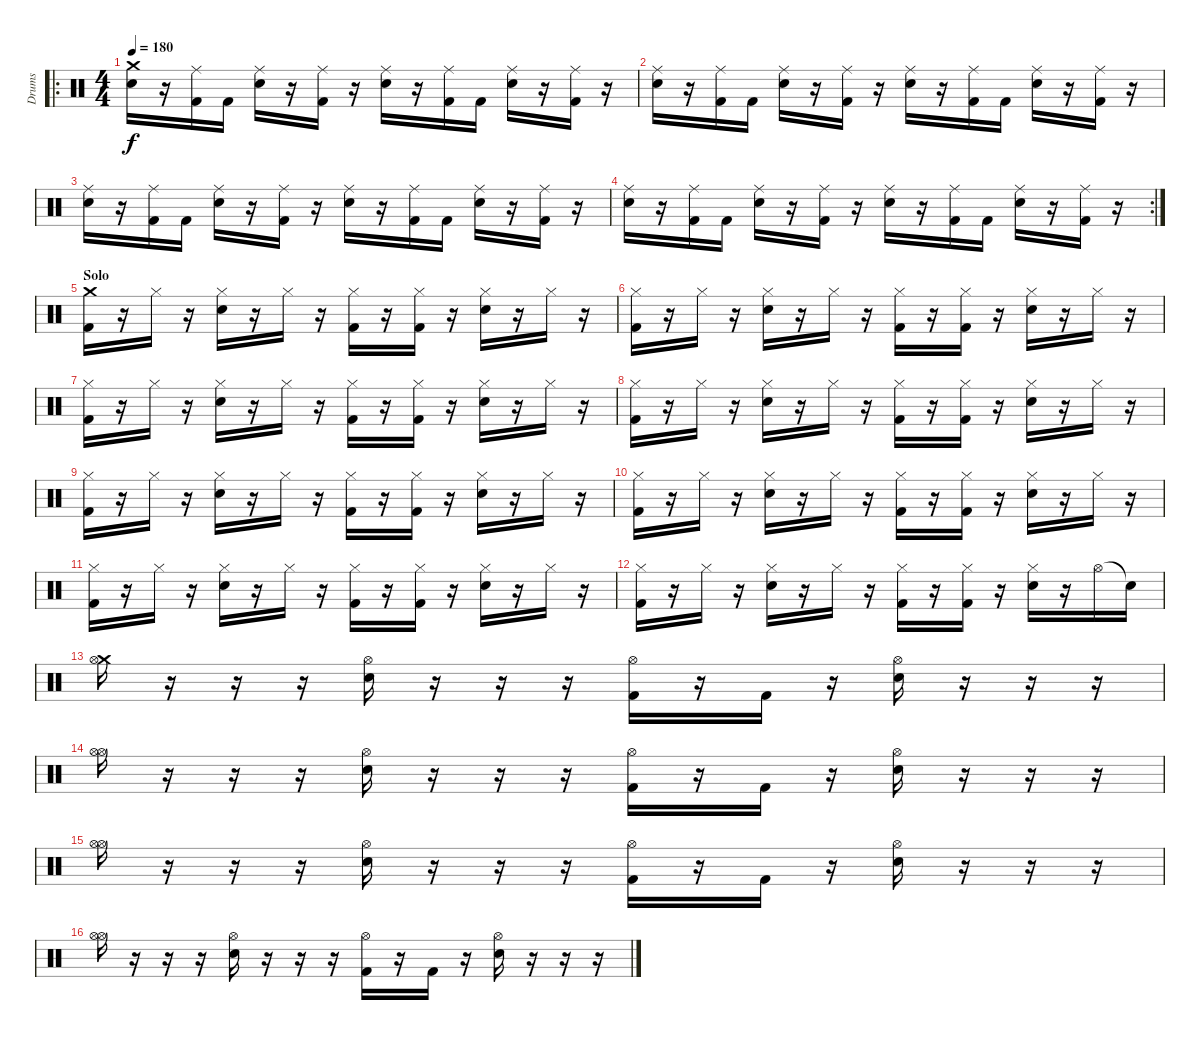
\track ("Drums" "Drums") {instrument percussion}
\staff {score}
\articulation defaults
\ro
\ts (4 4)
\tempo 180
\clef neutral
\ks c
("Crash medium (hit)" "Electric Snare (hit)").16{dy f} r.16 ("Ride (middle)" "Kick (hit) 2").16 "Kick (hit) 2".16 ("Ride (middle)" "Electric Snare (hit)").16 r.16 ("Ride (middle)" "Kick (hit) 2").16 r.16 ("Ride (middle)" "Electric Snare (hit)").16 r.16 ("Ride (middle)" "Kick (hit) 2").16 "Kick (hit) 2".16 ("Ride (middle)" "Electric Snare (hit)").16 r.16 ("Ride (middle)" "Kick (hit) 2").16 r.16 |
("Ride (middle)" "Electric Snare (hit)").16 r.16 ("Ride (middle)" "Kick (hit) 2").16 "Kick (hit) 2".16 ("Ride (middle)" "Electric Snare (hit)").16 r.16 ("Ride (middle)" "Kick (hit) 2").16 r.16 ("Ride (middle)" "Electric Snare (hit)").16 r.16 ("Ride (middle)" "Kick (hit) 2").16 "Kick (hit) 2".16 ("Ride (middle)" "Electric Snare (hit)").16 r.16 ("Ride (middle)" "Kick (hit) 2").16 r.16 |
("Ride (middle)" "Electric Snare (hit)").16 r.16 ("Ride (middle)" "Kick (hit) 2").16 "Kick (hit) 2".16 ("Ride (middle)" "Electric Snare (hit)").16 r.16 ("Ride (middle)" "Kick (hit) 2").16 r.16 ("Ride (middle)" "Electric Snare (hit)").16 r.16 ("Ride (middle)" "Kick (hit) 2").16 "Kick (hit) 2".16 ("Ride (middle)" "Electric Snare (hit)").16 r.16 ("Ride (middle)" "Kick (hit) 2").16 r.16 |
\rc 2
("Ride (middle)" "Electric Snare (hit)").16 r.16 ("Ride (middle)" "Kick (hit) 2").16 "Kick (hit) 2".16 ("Ride (middle)" "Electric Snare (hit)").16 r.16 ("Ride (middle)" "Kick (hit) 2").16 r.16 ("Ride (middle)" "Electric Snare (hit)").16 r.16 ("Ride (middle)" "Kick (hit) 2").16 "Kick (hit) 2".16 ("Ride (middle)" "Electric Snare (hit)").16 r.16 ("Ride (middle)" "Kick (hit) 2").16 r.16 |
\section ("" "Solo")
("Crash medium (hit)" "Kick (hit) 2").16 r.16 "Hi-Hat (closed)".16 r.16 ("Hi-Hat (closed)" "Electric Snare (hit)").16 r.16 "Hi-Hat (closed)".16 r.16 ("Hi-Hat (closed)" "Kick (hit) 2").16 r.16 ("Hi-Hat (closed)" "Kick (hit) 2").16 r.16 ("Hi-Hat (closed)" "Electric Snare (hit)").16 r.16 "Hi-Hat (closed)".16 r.16 |
("Hi-Hat (closed)" "Kick (hit) 2").16 r.16 "Hi-Hat (closed)".16 r.16 ("Hi-Hat (closed)" "Electric Snare (hit)").16 r.16 "Hi-Hat (closed)".16 r.16 ("Hi-Hat (closed)" "Kick (hit) 2").16 r.16 ("Hi-Hat (closed)" "Kick (hit) 2").16 r.16 ("Hi-Hat (closed)" "Electric Snare (hit)").16 r.16 "Hi-Hat (closed)".16 r.16 |
("Hi-Hat (closed)" "Kick (hit) 2").16 r.16 "Hi-Hat (closed)".16 r.16 ("Hi-Hat (closed)" "Electric Snare (hit)").16 r.16 "Hi-Hat (closed)".16 r.16 ("Hi-Hat (closed)" "Kick (hit) 2").16 r.16 ("Hi-Hat (closed)" "Kick (hit) 2").16 r.16 ("Hi-Hat (closed)" "Electric Snare (hit)").16 r.16 "Hi-Hat (closed)".16 r.16 |
("Hi-Hat (closed)" "Kick (hit) 2").16 r.16 "Hi-Hat (closed)".16 r.16 ("Hi-Hat (closed)" "Electric Snare (hit)").16 r.16 "Hi-Hat (closed)".16 r.16 ("Hi-Hat (closed)" "Kick (hit) 2").16 r.16 ("Hi-Hat (closed)" "Kick (hit) 2").16 r.16 ("Hi-Hat (closed)" "Electric Snare (hit)").16 r.16 "Hi-Hat (closed)".16 r.16 |
("Hi-Hat (closed)" "Kick (hit) 2").16 r.16 "Hi-Hat (closed)".16 r.16 ("Hi-Hat (closed)" "Electric Snare (hit)").16 r.16 "Hi-Hat (closed)".16 r.16 ("Hi-Hat (closed)" "Kick (hit) 2").16 r.16 ("Hi-Hat (closed)" "Kick (hit) 2").16 r.16 ("Hi-Hat (closed)" "Electric Snare (hit)").16 r.16 "Hi-Hat (closed)".16 r.16 |
("Hi-Hat (closed)" "Kick (hit) 2").16 r.16 "Hi-Hat (closed)".16 r.16 ("Hi-Hat (closed)" "Electric Snare (hit)").16 r.16 "Hi-Hat (closed)".16 r.16 ("Hi-Hat (closed)" "Kick (hit) 2").16 r.16 ("Hi-Hat (closed)" "Kick (hit) 2").16 r.16 ("Hi-Hat (closed)" "Electric Snare (hit)").16 r.16 "Hi-Hat (closed)".16 r.16 |
("Hi-Hat (closed)" "Kick (hit) 2").16 r.16 "Hi-Hat (closed)".16 r.16 ("Hi-Hat (closed)" "Electric Snare (hit)").16 r.16 "Hi-Hat (closed)".16 r.16 ("Hi-Hat (closed)" "Kick (hit) 2").16 r.16 ("Hi-Hat (closed)" "Kick (hit) 2").16 r.16 ("Hi-Hat (closed)" "Electric Snare (hit)").16 r.16 "Hi-Hat (closed)".16 r.16 |
("Hi-Hat (closed)" "Kick (hit) 2").16 r.16 "Hi-Hat (closed)".16 r.16 ("Hi-Hat (closed)" "Electric Snare (hit)").16 r.16 "Hi-Hat (closed)".16 r.16 ("Hi-Hat (closed)" "Kick (hit) 2").16 r.16 ("Hi-Hat (closed)" "Kick (hit) 2").16 r.16 ("Hi-Hat (closed)" "Electric Snare (hit)").16 r.16 "Hi-Hat (open)".16 "Snare (hit)"{t}.16 |
("Crash medium (hit)" "Hi-Hat (open)").16 r.16 r.16 r.16 ("Hi-Hat (open)" "Electric Snare (hit)").16 r.16 r.16 r.16 ("Hi-Hat (open)" "Kick (hit) 2").16 r.16 "Kick (hit) 2".16 r.16 ("Hi-Hat (open)" "Electric Snare (hit)").16 r.16 r.16 r.16 |
("Hi-Hat (open)" "Hi-Hat (open)").16 r.16 r.16 r.16 ("Hi-Hat (open)" "Electric Snare (hit)").16 r.16 r.16 r.16 ("Hi-Hat (open)" "Kick (hit) 2").16 r.16 "Kick (hit) 2".16 r.16 ("Hi-Hat (open)" "Electric Snare (hit)").16 r.16 r.16 r.16 |
("Hi-Hat (open)" "Hi-Hat (open)").16 r.16 r.16 r.16 ("Hi-Hat (open)" "Electric Snare (hit)").16 r.16 r.16 r.16 ("Hi-Hat (open)" "Kick (hit) 2").16 r.16 "Kick (hit) 2".16 r.16 ("Hi-Hat (open)" "Electric Snare (hit)").16 r.16 r.16 r.16 |
("Hi-Hat (open)" "Hi-Hat (open)").16 r.16 r.16 r.16 ("Hi-Hat (open)" "Electric Snare (hit)").16 r.16 r.16 r.16 ("Hi-Hat (open)" "Kick (hit) 2").16 r.16 "Kick (hit) 2".16 r.16 ("Hi-Hat (open)" "Electric Snare (hit)").16 r.16 r.16 r.16
